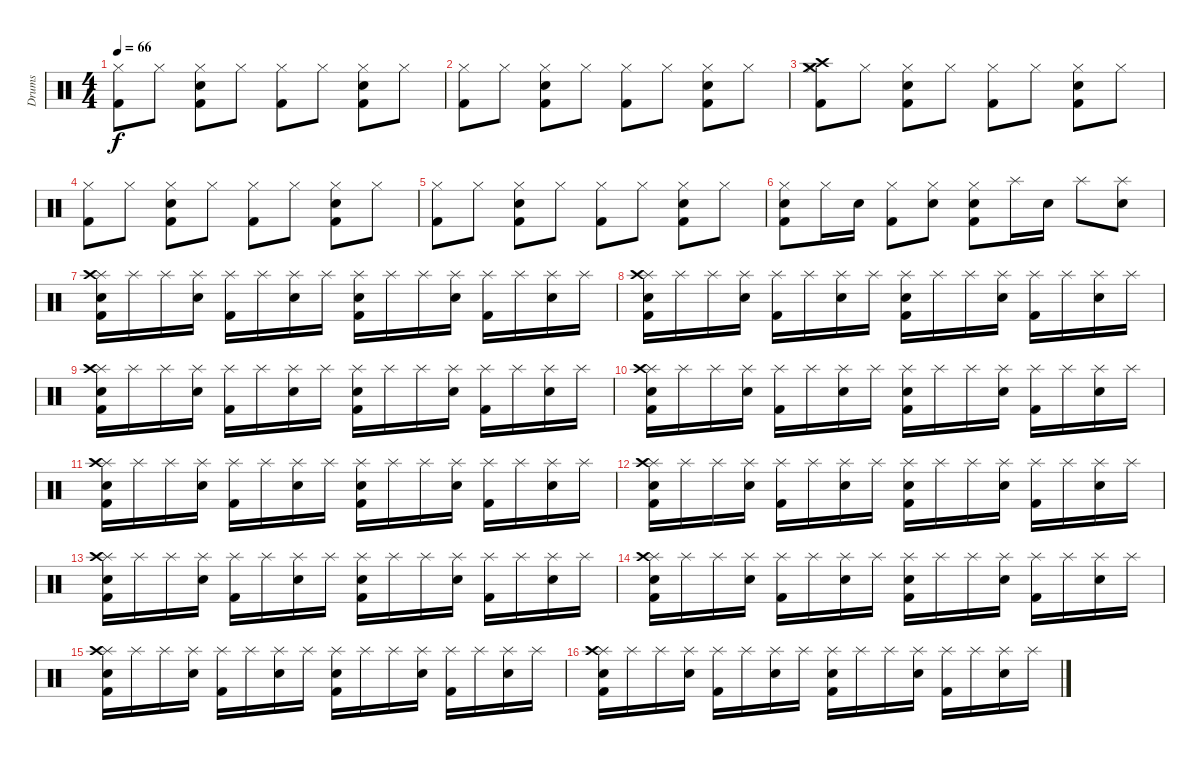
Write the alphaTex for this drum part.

\track ("Drums" "Drums") {instrument percussion}
\staff {score}
\articulation defaults
\ts (4 4)
\tempo 66
\clef neutral
\ks c
("Kick (hit) 2" "Hi-Hat (closed)").8{dy f} "Hi-Hat (closed)".8 ("Kick (hit) 2" "Hi-Hat (closed)" "Snare (hit) 2").8 "Hi-Hat (closed)".8 ("Kick (hit) 2" "Hi-Hat (closed)").8 "Hi-Hat (closed)".8 ("Kick (hit) 2" "Hi-Hat (closed)" "Snare (hit) 2").8 "Hi-Hat (closed)".8 |
("Kick (hit) 2" "Hi-Hat (closed)").8 "Hi-Hat (closed)".8 ("Kick (hit) 2" "Hi-Hat (closed)" "Snare (hit) 2").8 "Hi-Hat (closed)".8 ("Kick (hit) 2" "Hi-Hat (closed)").8 "Hi-Hat (closed)".8 ("Kick (hit) 2" "Hi-Hat (closed)" "Snare (hit) 2").8 "Hi-Hat (closed)".8 |
("Kick (hit) 2" "Hi-Hat (closed)" "Crash high (hit)" "Crash medium (hit)").8 "Hi-Hat (closed)".8 ("Kick (hit) 2" "Hi-Hat (closed)" "Snare (hit) 2").8 "Hi-Hat (closed)".8 ("Kick (hit) 2" "Hi-Hat (closed)").8 "Hi-Hat (closed)".8 ("Kick (hit) 2" "Hi-Hat (closed)" "Snare (hit) 2").8 "Hi-Hat (closed)".8 |
("Kick (hit) 2" "Hi-Hat (closed)").8 "Hi-Hat (closed)".8 ("Kick (hit) 2" "Hi-Hat (closed)" "Snare (hit) 2").8 "Hi-Hat (closed)".8 ("Kick (hit) 2" "Hi-Hat (closed)").8 "Hi-Hat (closed)".8 ("Kick (hit) 2" "Hi-Hat (closed)" "Snare (hit) 2").8 "Hi-Hat (closed)".8 |
("Kick (hit) 2" "Hi-Hat (closed)").8 "Hi-Hat (closed)".8 ("Kick (hit) 2" "Hi-Hat (closed)" "Snare (hit) 2").8 "Hi-Hat (closed)".8 ("Kick (hit) 2" "Hi-Hat (closed)").8 "Hi-Hat (closed)".8 ("Kick (hit) 2" "Hi-Hat (closed)" "Snare (hit) 2").8 "Hi-Hat (closed)".8 |
("Kick (hit) 2" "Hi-Hat (closed)" "Snare (hit) 2").8 "Hi-Hat (closed)".16 "Snare (hit) 2".16 ("Kick (hit) 2" "Hi-Hat (closed)").8 ("Hi-Hat (closed)" "Snare (hit) 2").8 ("Kick (hit) 2" "Hi-Hat (closed)" "Snare (hit) 2").8 "Splash (hit)".16 "Snare (hit) 2".16 "Splash (hit)".8 ("Splash (hit)" "Snare (hit) 2").8 |
("Kick (hit) 2" "Splash (hit)" "Snare (hit) 2" "Crash high (hit)").16 "Splash (hit)".16 "Splash (hit)".16 ("Splash (hit)" "Snare (hit) 2").16 ("Kick (hit) 2" "Splash (hit)").16 "Splash (hit)".16 ("Splash (hit)" "Snare (hit) 2").16 "Splash (hit)".16 ("Kick (hit) 2" "Splash (hit)" "Snare (hit) 2").16 "Splash (hit)".16 "Splash (hit)".16 ("Splash (hit)" "Snare (hit) 2").16 ("Kick (hit) 2" "Splash (hit)").16 "Splash (hit)".16 ("Splash (hit)" "Snare (hit) 2").16 "Splash (hit)".16 |
("Kick (hit) 2" "Splash (hit)" "Snare (hit) 2" "Crash high (hit)").16 "Splash (hit)".16 "Splash (hit)".16 ("Splash (hit)" "Snare (hit) 2").16 ("Kick (hit) 2" "Splash (hit)").16 "Splash (hit)".16 ("Splash (hit)" "Snare (hit) 2").16 "Splash (hit)".16 ("Kick (hit) 2" "Splash (hit)" "Snare (hit) 2").16 "Splash (hit)".16 "Splash (hit)".16 ("Splash (hit)" "Snare (hit) 2").16 ("Kick (hit) 2" "Splash (hit)").16 "Splash (hit)".16 ("Splash (hit)" "Snare (hit) 2").16 "Splash (hit)".16 |
("Kick (hit) 2" "Splash (hit)" "Snare (hit) 2" "Crash high (hit)").16 "Splash (hit)".16 "Splash (hit)".16 ("Splash (hit)" "Snare (hit) 2").16 ("Kick (hit) 2" "Splash (hit)").16 "Splash (hit)".16 ("Splash (hit)" "Snare (hit) 2").16 "Splash (hit)".16 ("Kick (hit) 2" "Splash (hit)" "Snare (hit) 2").16 "Splash (hit)".16 "Splash (hit)".16 ("Splash (hit)" "Snare (hit) 2").16 ("Kick (hit) 2" "Splash (hit)").16 "Splash (hit)".16 ("Splash (hit)" "Snare (hit) 2").16 "Splash (hit)".16 |
("Kick (hit) 2" "Splash (hit)" "Snare (hit) 2" "Crash high (hit)").16 "Splash (hit)".16 "Splash (hit)".16 ("Splash (hit)" "Snare (hit) 2").16 ("Kick (hit) 2" "Splash (hit)").16 "Splash (hit)".16 ("Splash (hit)" "Snare (hit) 2").16 "Splash (hit)".16 ("Kick (hit) 2" "Splash (hit)" "Snare (hit) 2").16 "Splash (hit)".16 "Splash (hit)".16 ("Splash (hit)" "Snare (hit) 2").16 ("Kick (hit) 2" "Splash (hit)").16 "Splash (hit)".16 ("Splash (hit)" "Snare (hit) 2").16 "Splash (hit)".16 |
("Kick (hit) 2" "Splash (hit)" "Snare (hit) 2" "Crash high (hit)").16 "Splash (hit)".16 "Splash (hit)".16 ("Splash (hit)" "Snare (hit) 2").16 ("Kick (hit) 2" "Splash (hit)").16 "Splash (hit)".16 ("Splash (hit)" "Snare (hit) 2").16 "Splash (hit)".16 ("Kick (hit) 2" "Splash (hit)" "Snare (hit) 2").16 "Splash (hit)".16 "Splash (hit)".16 ("Splash (hit)" "Snare (hit) 2").16 ("Kick (hit) 2" "Splash (hit)").16 "Splash (hit)".16 ("Splash (hit)" "Snare (hit) 2").16 "Splash (hit)".16 |
("Kick (hit) 2" "Splash (hit)" "Snare (hit) 2" "Crash high (hit)").16 "Splash (hit)".16 "Splash (hit)".16 ("Splash (hit)" "Snare (hit) 2").16 ("Kick (hit) 2" "Splash (hit)").16 "Splash (hit)".16 ("Splash (hit)" "Snare (hit) 2").16 "Splash (hit)".16 ("Kick (hit) 2" "Splash (hit)" "Snare (hit) 2").16 "Splash (hit)".16 "Splash (hit)".16 ("Splash (hit)" "Snare (hit) 2").16 ("Kick (hit) 2" "Splash (hit)").16 "Splash (hit)".16 ("Splash (hit)" "Snare (hit) 2").16 "Splash (hit)".16 |
("Kick (hit) 2" "Splash (hit)" "Snare (hit) 2" "Crash high (hit)").16 "Splash (hit)".16 "Splash (hit)".16 ("Splash (hit)" "Snare (hit) 2").16 ("Kick (hit) 2" "Splash (hit)").16 "Splash (hit)".16 ("Splash (hit)" "Snare (hit) 2").16 "Splash (hit)".16 ("Kick (hit) 2" "Splash (hit)" "Snare (hit) 2").16 "Splash (hit)".16 "Splash (hit)".16 ("Splash (hit)" "Snare (hit) 2").16 ("Kick (hit) 2" "Splash (hit)").16 "Splash (hit)".16 ("Splash (hit)" "Snare (hit) 2").16 "Splash (hit)".16 |
("Kick (hit) 2" "Splash (hit)" "Snare (hit) 2" "Crash high (hit)").16 "Splash (hit)".16 "Splash (hit)".16 ("Splash (hit)" "Snare (hit) 2").16 ("Kick (hit) 2" "Splash (hit)").16 "Splash (hit)".16 ("Splash (hit)" "Snare (hit) 2").16 "Splash (hit)".16 ("Kick (hit) 2" "Splash (hit)" "Snare (hit) 2").16 "Splash (hit)".16 "Splash (hit)".16 ("Splash (hit)" "Snare (hit) 2").16 ("Kick (hit) 2" "Splash (hit)").16 "Splash (hit)".16 ("Splash (hit)" "Snare (hit) 2").16 "Splash (hit)".16 |
("Kick (hit) 2" "Splash (hit)" "Snare (hit) 2" "Crash high (hit)").16 "Splash (hit)".16 "Splash (hit)".16 ("Splash (hit)" "Snare (hit) 2").16 ("Kick (hit) 2" "Splash (hit)").16 "Splash (hit)".16 ("Splash (hit)" "Snare (hit) 2").16 "Splash (hit)".16 ("Kick (hit) 2" "Splash (hit)" "Snare (hit) 2").16 "Splash (hit)".16 "Splash (hit)".16 ("Splash (hit)" "Snare (hit) 2").16 ("Kick (hit) 2" "Splash (hit)").16 "Splash (hit)".16 ("Splash (hit)" "Snare (hit) 2").16 "Splash (hit)".16 |
("Kick (hit) 2" "Splash (hit)" "Snare (hit) 2" "Crash high (hit)").16 "Splash (hit)".16 "Splash (hit)".16 ("Splash (hit)" "Snare (hit) 2").16 ("Kick (hit) 2" "Splash (hit)").16 "Splash (hit)".16 ("Splash (hit)" "Snare (hit) 2").16 "Splash (hit)".16 ("Kick (hit) 2" "Splash (hit)" "Snare (hit) 2").16 "Splash (hit)".16 "Splash (hit)".16 ("Splash (hit)" "Snare (hit) 2").16 ("Kick (hit) 2" "Splash (hit)").16 "Splash (hit)".16 ("Splash (hit)" "Snare (hit) 2").16 "Splash (hit)".16
